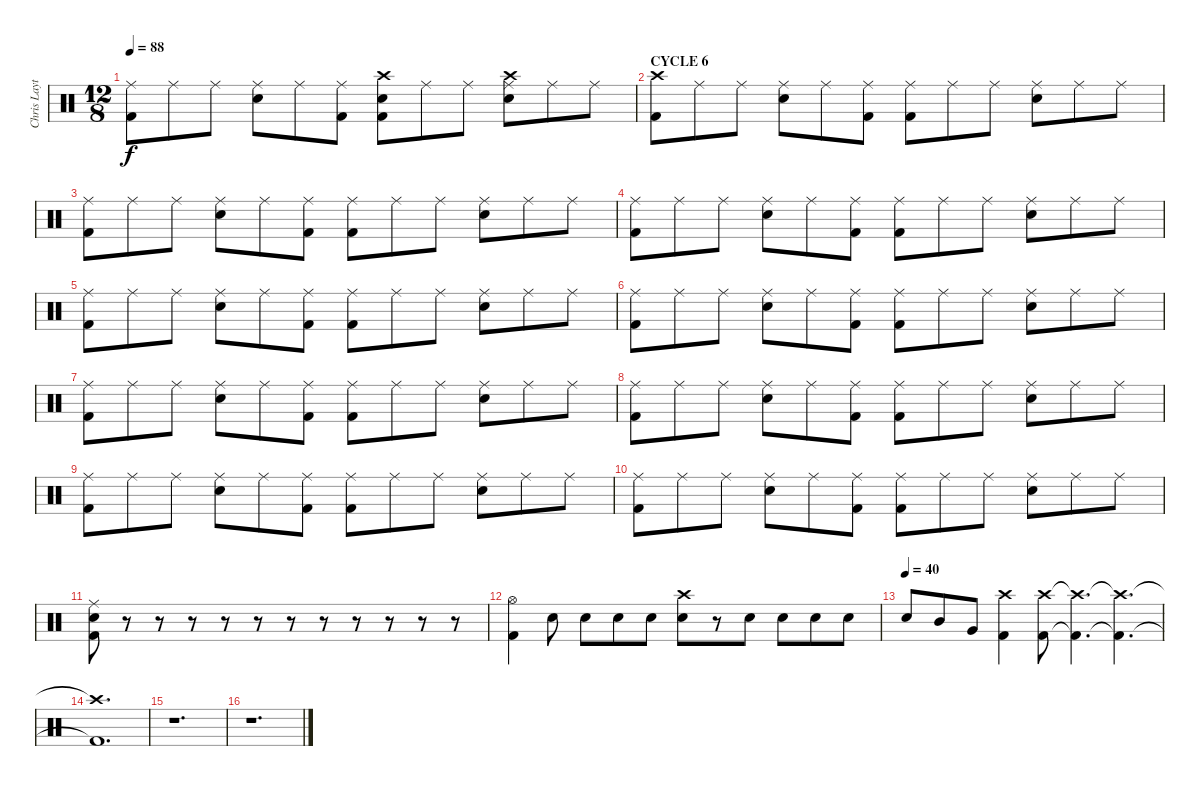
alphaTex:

\track ("Chris Layton" "Chris Layt") {instrument percussion}
\staff {score}
\articulation defaults
\ts (12 8)
\tempo 88
\clef neutral
\ks c
("Ride (middle)" "Kick (hit) 2").8{dy f} "Ride (middle)".8 "Ride (middle)".8 ("Ride (middle)" "Snare (hit) 2").8 "Ride (middle)".8 ("Ride (middle)" "Kick (hit) 2").8 ("Crash high (hit)" "Snare (hit) 2" "Kick (hit) 2").8 "Ride (middle)".8 "Ride (middle)".8 ("Ride (middle)" "Crash high (hit)" "Snare (hit) 2").8 "Ride (middle)".8 "Ride (middle)".8 |
\section ("" "CYCLE 6")
("Crash high (hit)" "Kick (hit) 2").8 "Ride (middle)".8 "Ride (middle)".8 ("Ride (middle)" "Snare (hit) 2").8 "Ride (middle)".8 ("Ride (middle)" "Kick (hit) 2").8 ("Ride (middle)" "Kick (hit) 2").8 "Ride (middle)".8 "Ride (middle)".8 ("Ride (middle)" "Snare (hit) 2").8 "Ride (middle)".8 "Ride (middle)".8 |
("Ride (middle)" "Kick (hit) 2").8 "Ride (middle)".8 "Ride (middle)".8 ("Ride (middle)" "Snare (hit) 2").8 "Ride (middle)".8 ("Ride (middle)" "Kick (hit) 2").8 ("Ride (middle)" "Kick (hit) 2").8 "Ride (middle)".8 "Ride (middle)".8 ("Ride (middle)" "Snare (hit) 2").8 "Ride (middle)".8 "Ride (middle)".8 |
("Ride (middle)" "Kick (hit) 2").8 "Ride (middle)".8 "Ride (middle)".8 ("Ride (middle)" "Snare (hit) 2").8 "Ride (middle)".8 ("Ride (middle)" "Kick (hit) 2").8 ("Ride (middle)" "Kick (hit) 2").8 "Ride (middle)".8 "Ride (middle)".8 ("Ride (middle)" "Snare (hit) 2").8 "Ride (middle)".8 "Ride (middle)".8 |
("Ride (middle)" "Kick (hit) 2").8 "Ride (middle)".8 "Ride (middle)".8 ("Ride (middle)" "Snare (hit) 2").8 "Ride (middle)".8 ("Ride (middle)" "Kick (hit) 2").8 ("Ride (middle)" "Kick (hit) 2").8 "Ride (middle)".8 "Ride (middle)".8 ("Ride (middle)" "Snare (hit) 2").8 "Ride (middle)".8 "Ride (middle)".8 |
("Ride (middle)" "Kick (hit) 2").8 "Ride (middle)".8 "Ride (middle)".8 ("Ride (middle)" "Snare (hit) 2").8 "Ride (middle)".8 ("Ride (middle)" "Kick (hit) 2").8 ("Ride (middle)" "Kick (hit) 2").8 "Ride (middle)".8 "Ride (middle)".8 ("Ride (middle)" "Snare (hit) 2").8 "Ride (middle)".8 "Ride (middle)".8 |
("Ride (middle)" "Kick (hit) 2").8 "Ride (middle)".8 "Ride (middle)".8 ("Ride (middle)" "Snare (hit) 2").8 "Ride (middle)".8 ("Ride (middle)" "Kick (hit) 2").8 ("Ride (middle)" "Kick (hit) 2").8 "Ride (middle)".8 "Ride (middle)".8 ("Ride (middle)" "Snare (hit) 2").8 "Ride (middle)".8 "Ride (middle)".8 |
("Ride (middle)" "Kick (hit) 2").8 "Ride (middle)".8 "Ride (middle)".8 ("Ride (middle)" "Snare (hit) 2").8 "Ride (middle)".8 ("Ride (middle)" "Kick (hit) 2").8 ("Ride (middle)" "Kick (hit) 2").8 "Ride (middle)".8 "Ride (middle)".8 ("Ride (middle)" "Snare (hit) 2").8 "Ride (middle)".8 "Ride (middle)".8 |
("Ride (middle)" "Kick (hit) 2").8 "Ride (middle)".8 "Ride (middle)".8 ("Ride (middle)" "Snare (hit) 2").8 "Ride (middle)".8 ("Ride (middle)" "Kick (hit) 2").8 ("Ride (middle)" "Kick (hit) 2").8 "Ride (middle)".8 "Ride (middle)".8 ("Ride (middle)" "Snare (hit) 2").8 "Ride (middle)".8 "Ride (middle)".8 |
("Ride (middle)" "Kick (hit) 2").8 "Ride (middle)".8 "Ride (middle)".8 ("Ride (middle)" "Snare (hit) 2").8 "Ride (middle)".8 ("Ride (middle)" "Kick (hit) 2").8 ("Ride (middle)" "Kick (hit) 2").8 "Ride (middle)".8 "Ride (middle)".8 ("Ride (middle)" "Snare (hit) 2").8 "Ride (middle)".8 "Ride (middle)".8 |
("Ride (middle)" "Snare (hit) 2" "Kick (hit) 2").8 r.8 r.8 r.8 r.8 r.8 r.8 r.8 r.8 r.8 r.8 r.8 |
("Hi-Hat (open)" "Kick (hit) 2").4 "Snare (hit) 2".8 "Snare (hit) 2".8 "Snare (hit) 2".8 "Snare (hit) 2".8 ("Crash high (hit)" "Snare (hit) 2").8 r.8 "Snare (hit) 2".8 "Snare (hit) 2".8 "Snare (hit) 2".8 "Snare (hit) 2".8 |
\tempo (40)
"Snare (hit) 2".8 "Mid Tom (hit)".8 "Very Low Tom (hit)".8 ("Crash high (hit)" "Kick (hit) 2").4 ("Crash high (hit)" "Kick (hit) 2").8 ("Crash high (hit)"{t} "Kick (hit) 2"{t}).4{d} ("Crash high (hit)"{t} "Kick (hit) 2"{t}).4{d} |
("Crash high (hit)"{t} "Kick (hit) 2"{t}).1{d} |
r.1{d} |
r.1{d}
